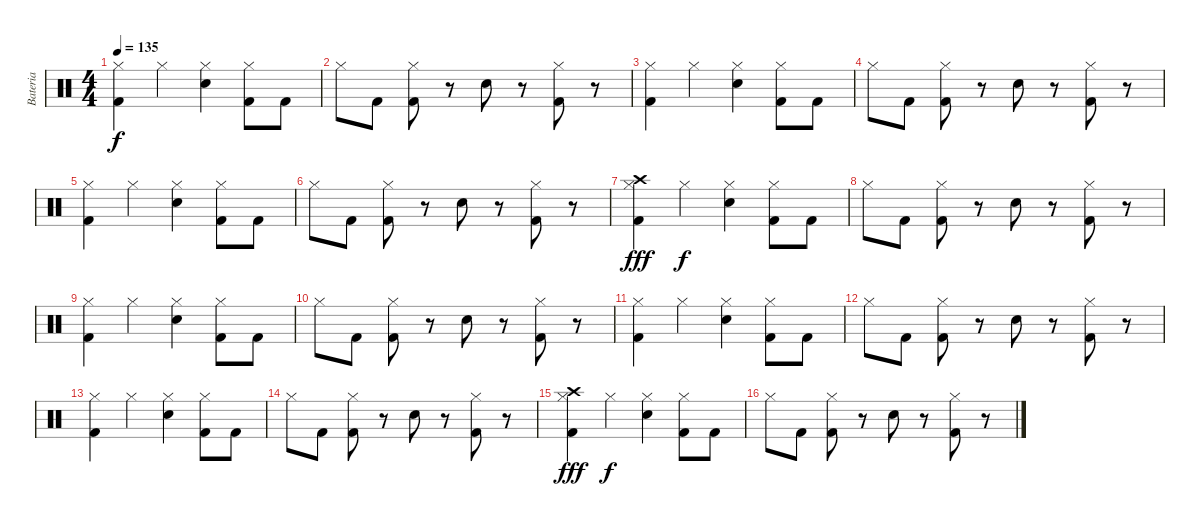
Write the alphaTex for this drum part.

\track ("Bateria" "Bateria") {instrument percussion}
\staff {score}
\articulation defaults
\ts (4 4)
\tempo 135
\clef neutral
\ks c
("Kick (hit) 2" "Hi-Hat (closed)").4{dy f} "Hi-Hat (closed)".4 ("Snare (hit) 2" "Hi-Hat (closed)").4 ("Kick (hit) 2" "Hi-Hat (closed)").8 "Kick (hit) 2".8 |
"Hi-Hat (closed)".8 "Kick (hit) 2".8 ("Kick (hit) 2" "Hi-Hat (closed)").8 r.8 "Snare (hit) 2".8 r.8 ("Kick (hit) 2" "Hi-Hat (closed)").8 r.8 |
("Kick (hit) 2" "Hi-Hat (closed)").4 "Hi-Hat (closed)".4 ("Snare (hit) 2" "Hi-Hat (closed)").4 ("Kick (hit) 2" "Hi-Hat (closed)").8 "Kick (hit) 2".8 |
"Hi-Hat (closed)".8 "Kick (hit) 2".8 ("Kick (hit) 2" "Hi-Hat (closed)").8 r.8 "Snare (hit) 2".8 r.8 ("Kick (hit) 2" "Hi-Hat (closed)").8 r.8 |
("Kick (hit) 2" "Hi-Hat (closed)").4 "Hi-Hat (closed)".4 ("Snare (hit) 2" "Hi-Hat (closed)").4 ("Kick (hit) 2" "Hi-Hat (closed)").8 "Kick (hit) 2".8 |
"Hi-Hat (closed)".8 "Kick (hit) 2".8 ("Kick (hit) 2" "Hi-Hat (closed)").8 r.8 "Snare (hit) 2".8 r.8 ("Kick (hit) 2" "Hi-Hat (closed)").8 r.8 |
("Kick (hit) 2" "Hi-Hat (closed)" "Crash high (hit)").4{dy fff} "Hi-Hat (closed)".4{dy f} ("Snare (hit) 2" "Hi-Hat (closed)").4 ("Kick (hit) 2" "Hi-Hat (closed)").8 "Kick (hit) 2".8 |
"Hi-Hat (closed)".8 "Kick (hit) 2".8 ("Kick (hit) 2" "Hi-Hat (closed)").8 r.8 "Snare (hit) 2".8 r.8 ("Kick (hit) 2" "Hi-Hat (closed)").8 r.8 |
("Kick (hit) 2" "Hi-Hat (closed)").4 "Hi-Hat (closed)".4 ("Snare (hit) 2" "Hi-Hat (closed)").4 ("Kick (hit) 2" "Hi-Hat (closed)").8 "Kick (hit) 2".8 |
"Hi-Hat (closed)".8 "Kick (hit) 2".8 ("Kick (hit) 2" "Hi-Hat (closed)").8 r.8 "Snare (hit) 2".8 r.8 ("Kick (hit) 2" "Hi-Hat (closed)").8 r.8 |
("Kick (hit) 2" "Hi-Hat (closed)").4 "Hi-Hat (closed)".4 ("Snare (hit) 2" "Hi-Hat (closed)").4 ("Kick (hit) 2" "Hi-Hat (closed)").8 "Kick (hit) 2".8 |
"Hi-Hat (closed)".8 "Kick (hit) 2".8 ("Kick (hit) 2" "Hi-Hat (closed)").8 r.8 "Snare (hit) 2".8 r.8 ("Kick (hit) 2" "Hi-Hat (closed)").8 r.8 |
("Kick (hit) 2" "Hi-Hat (closed)").4 "Hi-Hat (closed)".4 ("Snare (hit) 2" "Hi-Hat (closed)").4 ("Kick (hit) 2" "Hi-Hat (closed)").8 "Kick (hit) 2".8 |
"Hi-Hat (closed)".8 "Kick (hit) 2".8 ("Kick (hit) 2" "Hi-Hat (closed)").8 r.8 "Snare (hit) 2".8 r.8 ("Kick (hit) 2" "Hi-Hat (closed)").8 r.8 |
("Kick (hit) 2" "Hi-Hat (closed)" "Crash high (hit)").4{dy fff} "Hi-Hat (closed)".4{dy f} ("Snare (hit) 2" "Hi-Hat (closed)").4 ("Kick (hit) 2" "Hi-Hat (closed)").8 "Kick (hit) 2".8 |
"Hi-Hat (closed)".8 "Kick (hit) 2".8 ("Kick (hit) 2" "Hi-Hat (closed)").8 r.8 "Snare (hit) 2".8 r.8 ("Kick (hit) 2" "Hi-Hat (closed)").8 r.8
